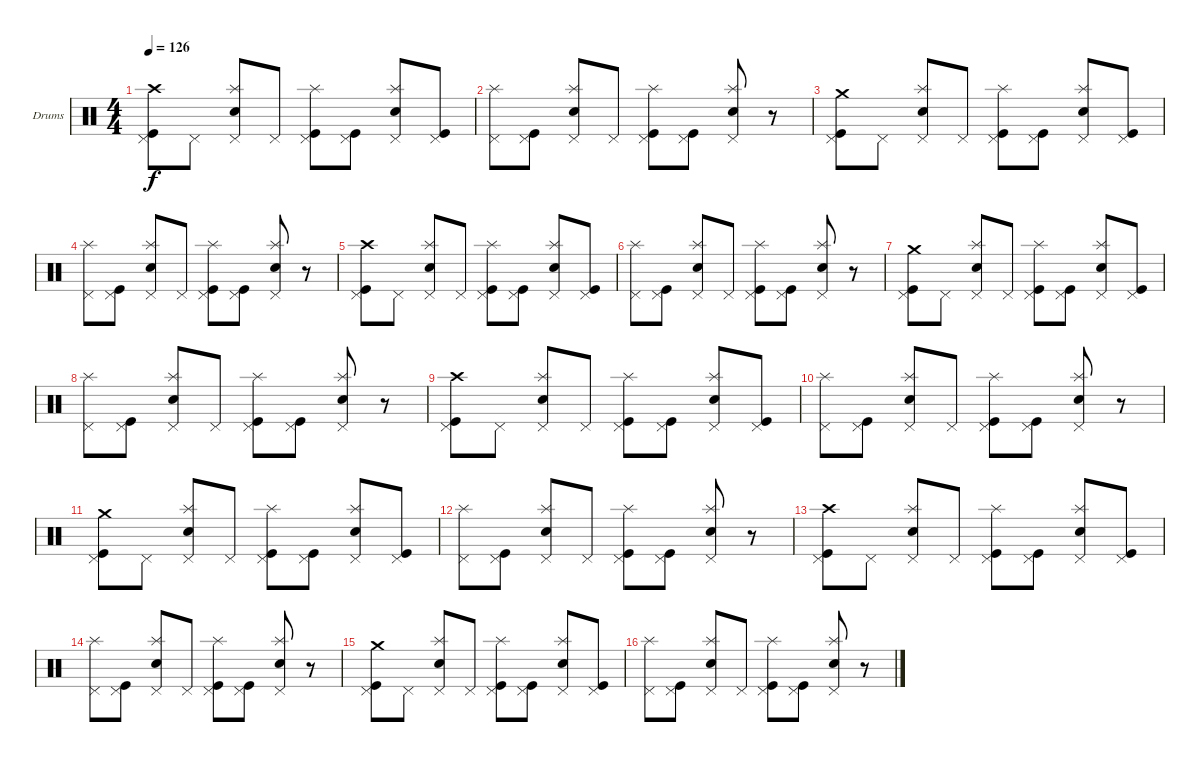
\bracketExtendMode groupsimilarinstruments
\firstSystemTrackNameOrientation horizontal
\otherSystemsTrackNameOrientation horizontal
\track ("Drumkit" "Drums") {instrument percussion}
\staff {score}
\articulation defaults
\ts (4 4)
\tempo 126
\clef neutral
\ks c
("Pedal Hi-Hat (hit)" "Kick (hit)" "Crash high (hit)").8{dy f} "Pedal Hi-Hat (hit)".8 ("Pedal Hi-Hat (hit)" "Splash (hit)" "Snare (hit) 2").8 "Pedal Hi-Hat (hit)".8 ("Pedal Hi-Hat (hit)" "Splash (hit)" "Kick (hit)").8 ("Pedal Hi-Hat (hit)" "Kick (hit)").8 ("Pedal Hi-Hat (hit)" "Splash (hit)" "Snare (hit) 2").8 ("Pedal Hi-Hat (hit)" "Kick (hit)").8 |
("Pedal Hi-Hat (hit)" "Splash (hit)").8 ("Pedal Hi-Hat (hit)" "Kick (hit)").8 ("Pedal Hi-Hat (hit)" "Splash (hit)" "Snare (hit) 2").8 "Pedal Hi-Hat (hit)".8 ("Pedal Hi-Hat (hit)" "Splash (hit)" "Kick (hit)").8 ("Pedal Hi-Hat (hit)" "Kick (hit)").8 ("Pedal Hi-Hat (hit)" "Splash (hit)" "Snare (hit) 2").8 r.8 |
("Pedal Hi-Hat (hit)" "Kick (hit)" "Crash medium (hit)").8 "Pedal Hi-Hat (hit)".8 ("Pedal Hi-Hat (hit)" "Snare (hit) 2" "Splash (hit)").8 "Pedal Hi-Hat (hit)".8 ("Pedal Hi-Hat (hit)" "Kick (hit)" "Splash (hit)").8 ("Kick (hit)" "Pedal Hi-Hat (hit)").8 ("Splash (hit)" "Snare (hit) 2" "Pedal Hi-Hat (hit)").8 ("Pedal Hi-Hat (hit)" "Kick (hit)").8 |
("Splash (hit)" "Pedal Hi-Hat (hit)").8 ("Kick (hit)" "Pedal Hi-Hat (hit)").8 ("Splash (hit)" "Snare (hit) 2" "Pedal Hi-Hat (hit)").8 "Pedal Hi-Hat (hit)".8 ("Splash (hit)" "Kick (hit)" "Pedal Hi-Hat (hit)").8 ("Pedal Hi-Hat (hit)" "Kick (hit)").8 ("Pedal Hi-Hat (hit)" "Snare (hit) 2" "Splash (hit)").8 r.8 |
("Pedal Hi-Hat (hit)" "Kick (hit)" "Crash high (hit)").8 "Pedal Hi-Hat (hit)".8 ("Pedal Hi-Hat (hit)" "Splash (hit)" "Snare (hit) 2").8 "Pedal Hi-Hat (hit)".8 ("Pedal Hi-Hat (hit)" "Splash (hit)" "Kick (hit)").8 ("Pedal Hi-Hat (hit)" "Kick (hit)").8 ("Pedal Hi-Hat (hit)" "Splash (hit)" "Snare (hit) 2").8 ("Pedal Hi-Hat (hit)" "Kick (hit)").8 |
("Pedal Hi-Hat (hit)" "Splash (hit)").8 ("Pedal Hi-Hat (hit)" "Kick (hit)").8 ("Pedal Hi-Hat (hit)" "Splash (hit)" "Snare (hit) 2").8 "Pedal Hi-Hat (hit)".8 ("Pedal Hi-Hat (hit)" "Splash (hit)" "Kick (hit)").8 ("Pedal Hi-Hat (hit)" "Kick (hit)").8 ("Pedal Hi-Hat (hit)" "Splash (hit)" "Snare (hit) 2").8 r.8 |
("Pedal Hi-Hat (hit)" "Kick (hit)" "Crash medium (hit)").8 "Pedal Hi-Hat (hit)".8 ("Pedal Hi-Hat (hit)" "Snare (hit) 2" "Splash (hit)").8 "Pedal Hi-Hat (hit)".8 ("Pedal Hi-Hat (hit)" "Kick (hit)" "Splash (hit)").8 ("Kick (hit)" "Pedal Hi-Hat (hit)").8 ("Splash (hit)" "Snare (hit) 2" "Pedal Hi-Hat (hit)").8 ("Pedal Hi-Hat (hit)" "Kick (hit)").8 |
("Splash (hit)" "Pedal Hi-Hat (hit)").8 ("Kick (hit)" "Pedal Hi-Hat (hit)").8 ("Splash (hit)" "Snare (hit) 2" "Pedal Hi-Hat (hit)").8 "Pedal Hi-Hat (hit)".8 ("Splash (hit)" "Kick (hit)" "Pedal Hi-Hat (hit)").8 ("Pedal Hi-Hat (hit)" "Kick (hit)").8 ("Pedal Hi-Hat (hit)" "Snare (hit) 2" "Splash (hit)").8 r.8 |
("Pedal Hi-Hat (hit)" "Kick (hit)" "Crash high (hit)").8 "Pedal Hi-Hat (hit)".8 ("Pedal Hi-Hat (hit)" "Splash (hit)" "Snare (hit) 2").8 "Pedal Hi-Hat (hit)".8 ("Pedal Hi-Hat (hit)" "Splash (hit)" "Kick (hit)").8 ("Pedal Hi-Hat (hit)" "Kick (hit)").8 ("Pedal Hi-Hat (hit)" "Splash (hit)" "Snare (hit) 2").8 ("Pedal Hi-Hat (hit)" "Kick (hit)").8 |
("Pedal Hi-Hat (hit)" "Splash (hit)").8 ("Pedal Hi-Hat (hit)" "Kick (hit)").8 ("Pedal Hi-Hat (hit)" "Splash (hit)" "Snare (hit) 2").8 "Pedal Hi-Hat (hit)".8 ("Pedal Hi-Hat (hit)" "Splash (hit)" "Kick (hit)").8 ("Pedal Hi-Hat (hit)" "Kick (hit)").8 ("Pedal Hi-Hat (hit)" "Splash (hit)" "Snare (hit) 2").8 r.8 |
("Pedal Hi-Hat (hit)" "Kick (hit)" "Crash medium (hit)").8 "Pedal Hi-Hat (hit)".8 ("Pedal Hi-Hat (hit)" "Snare (hit) 2" "Splash (hit)").8 "Pedal Hi-Hat (hit)".8 ("Pedal Hi-Hat (hit)" "Kick (hit)" "Splash (hit)").8 ("Kick (hit)" "Pedal Hi-Hat (hit)").8 ("Splash (hit)" "Snare (hit) 2" "Pedal Hi-Hat (hit)").8 ("Pedal Hi-Hat (hit)" "Kick (hit)").8 |
("Splash (hit)" "Pedal Hi-Hat (hit)").8 ("Kick (hit)" "Pedal Hi-Hat (hit)").8 ("Splash (hit)" "Snare (hit) 2" "Pedal Hi-Hat (hit)").8 "Pedal Hi-Hat (hit)".8 ("Splash (hit)" "Kick (hit)" "Pedal Hi-Hat (hit)").8 ("Pedal Hi-Hat (hit)" "Kick (hit)").8 ("Pedal Hi-Hat (hit)" "Snare (hit) 2" "Splash (hit)").8 r.8 |
("Pedal Hi-Hat (hit)" "Kick (hit)" "Crash high (hit)").8 "Pedal Hi-Hat (hit)".8 ("Pedal Hi-Hat (hit)" "Splash (hit)" "Snare (hit) 2").8 "Pedal Hi-Hat (hit)".8 ("Pedal Hi-Hat (hit)" "Splash (hit)" "Kick (hit)").8 ("Pedal Hi-Hat (hit)" "Kick (hit)").8 ("Pedal Hi-Hat (hit)" "Splash (hit)" "Snare (hit) 2").8 ("Pedal Hi-Hat (hit)" "Kick (hit)").8 |
("Pedal Hi-Hat (hit)" "Splash (hit)").8 ("Pedal Hi-Hat (hit)" "Kick (hit)").8 ("Pedal Hi-Hat (hit)" "Splash (hit)" "Snare (hit) 2").8 "Pedal Hi-Hat (hit)".8 ("Pedal Hi-Hat (hit)" "Splash (hit)" "Kick (hit)").8 ("Pedal Hi-Hat (hit)" "Kick (hit)").8 ("Pedal Hi-Hat (hit)" "Splash (hit)" "Snare (hit) 2").8 r.8 |
("Pedal Hi-Hat (hit)" "Kick (hit)" "Crash medium (hit)").8 "Pedal Hi-Hat (hit)".8 ("Pedal Hi-Hat (hit)" "Snare (hit) 2" "Splash (hit)").8 "Pedal Hi-Hat (hit)".8 ("Pedal Hi-Hat (hit)" "Kick (hit)" "Splash (hit)").8 ("Kick (hit)" "Pedal Hi-Hat (hit)").8 ("Splash (hit)" "Snare (hit) 2" "Pedal Hi-Hat (hit)").8 ("Pedal Hi-Hat (hit)" "Kick (hit)").8 |
("Splash (hit)" "Pedal Hi-Hat (hit)").8 ("Kick (hit)" "Pedal Hi-Hat (hit)").8 ("Splash (hit)" "Snare (hit) 2" "Pedal Hi-Hat (hit)").8 "Pedal Hi-Hat (hit)".8 ("Splash (hit)" "Kick (hit)" "Pedal Hi-Hat (hit)").8 ("Pedal Hi-Hat (hit)" "Kick (hit)").8 ("Pedal Hi-Hat (hit)" "Snare (hit) 2" "Splash (hit)").8 r.8
